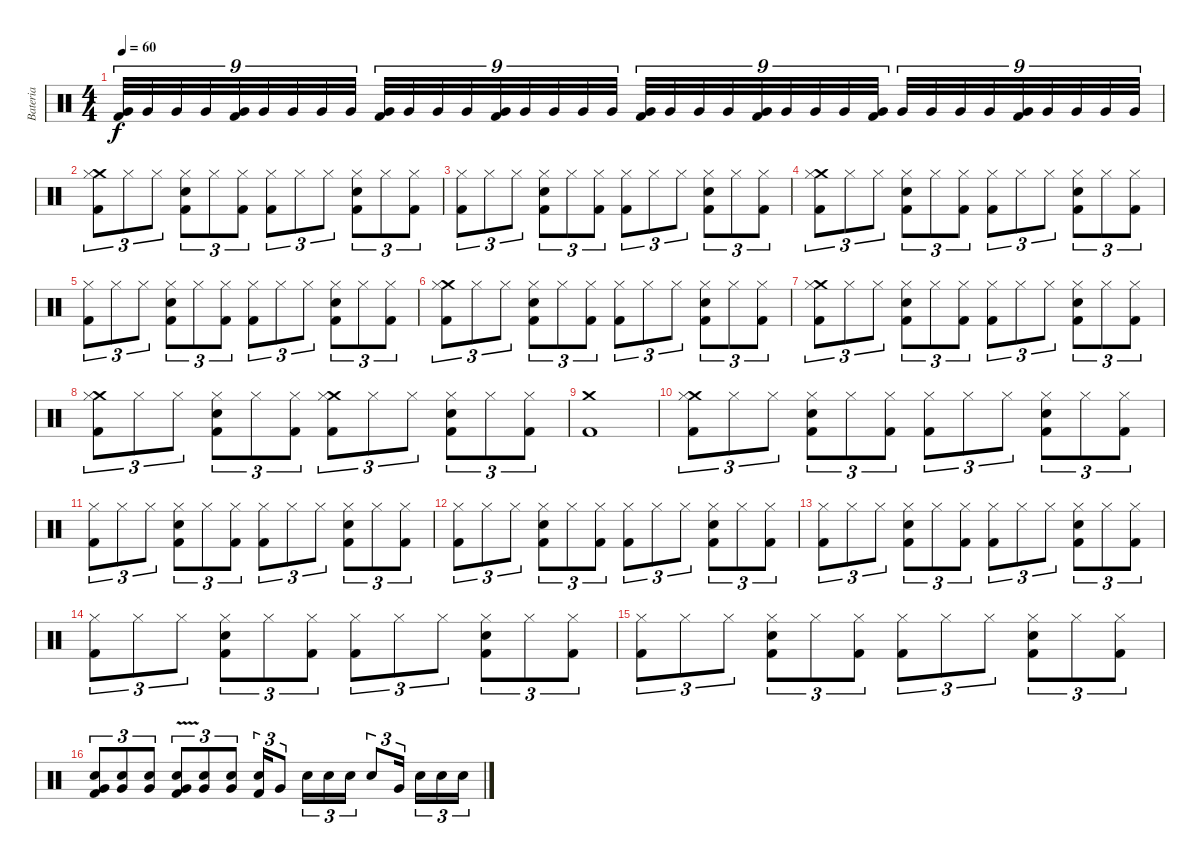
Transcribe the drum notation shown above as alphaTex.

\track ("Bateria" "Bateria") {instrument percussion}
\staff {score}
\articulation defaults
\ts (4 4)
\tempo 60
\clef neutral
\ks c
("Very Low Tom (hit)" "Kick (hit) 2").32{tu (9 8) dy f} "Very Low Tom (hit)".32{tu (9 8)} "Very Low Tom (hit)".32{tu (9 8)} "Very Low Tom (hit)".32{tu (9 8)} ("Very Low Tom (hit)" "Kick (hit) 2").32{tu (9 8)} "Very Low Tom (hit)".32{tu (9 8)} "Very Low Tom (hit)".32{tu (9 8)} "Very Low Tom (hit)".32{tu (9 8)} "Very Low Tom (hit)".32{tu (9 8)} ("Very Low Tom (hit)" "Kick (hit) 2").32{tu (9 8)} "Very Low Tom (hit)".32{tu (9 8)} "Very Low Tom (hit)".32{tu (9 8)} "Very Low Tom (hit)".32{tu (9 8)} ("Very Low Tom (hit)" "Kick (hit) 2").32{tu (9 8)} "Very Low Tom (hit)".32{tu (9 8)} "Very Low Tom (hit)".32{tu (9 8)} "Very Low Tom (hit)".32{tu (9 8)} "Very Low Tom (hit)".32{tu (9 8)} ("Very Low Tom (hit)" "Kick (hit) 2").32{tu (9 8)} "Very Low Tom (hit)".32{tu (9 8)} "Very Low Tom (hit)".32{tu (9 8)} "Very Low Tom (hit)".32{tu (9 8)} ("Very Low Tom (hit)" "Kick (hit) 2").32{tu (9 8)} "Very Low Tom (hit)".32{tu (9 8)} "Very Low Tom (hit)".32{tu (9 8)} "Very Low Tom (hit)".32{tu (9 8)} ("Very Low Tom (hit)" "Kick (hit) 2").32{tu (9 8)} "Very Low Tom (hit)".32{tu (9 8)} "Very Low Tom (hit)".32{tu (9 8)} "Very Low Tom (hit)".32{tu (9 8)} "Very Low Tom (hit)".32{tu (9 8)} ("Very Low Tom (hit)" "Kick (hit) 2").32{tu (9 8)} "Very Low Tom (hit)".32{tu (9 8)} "Very Low Tom (hit)".32{tu (9 8)} "Very Low Tom (hit)".32{tu (9 8)} "Very Low Tom (hit)".32{tu (9 8)} |
("Crash medium (hit)" "Hi-Hat (closed)" "Kick (hit) 2").8{tu (3 2)} "Hi-Hat (closed)".8{tu (3 2)} "Hi-Hat (closed)".8{tu (3 2)} ("Snare (hit) 2" "Hi-Hat (closed)" "Kick (hit) 2").8{tu (3 2)} "Hi-Hat (closed)".8{tu (3 2)} ("Hi-Hat (closed)" "Kick (hit) 2").8{tu (3 2)} ("Hi-Hat (closed)" "Kick (hit) 2").8{tu (3 2)} "Hi-Hat (closed)".8{tu (3 2)} "Hi-Hat (closed)".8{tu (3 2)} ("Snare (hit) 2" "Hi-Hat (closed)" "Kick (hit) 2").8{tu (3 2)} "Hi-Hat (closed)".8{tu (3 2)} ("Hi-Hat (closed)" "Kick (hit) 2").8{tu (3 2)} |
("Hi-Hat (closed)" "Kick (hit) 2").8{tu (3 2)} "Hi-Hat (closed)".8{tu (3 2)} "Hi-Hat (closed)".8{tu (3 2)} ("Snare (hit) 2" "Hi-Hat (closed)" "Kick (hit) 2").8{tu (3 2)} "Hi-Hat (closed)".8{tu (3 2)} ("Hi-Hat (closed)" "Kick (hit) 2").8{tu (3 2)} ("Hi-Hat (closed)" "Kick (hit) 2").8{tu (3 2)} "Hi-Hat (closed)".8{tu (3 2)} "Hi-Hat (closed)".8{tu (3 2)} ("Snare (hit) 2" "Hi-Hat (closed)" "Kick (hit) 2").8{tu (3 2)} "Hi-Hat (closed)".8{tu (3 2)} ("Hi-Hat (closed)" "Kick (hit) 2").8{tu (3 2)} |
("Crash medium (hit)" "Hi-Hat (closed)" "Kick (hit) 2").8{tu (3 2)} "Hi-Hat (closed)".8{tu (3 2)} "Hi-Hat (closed)".8{tu (3 2)} ("Snare (hit) 2" "Hi-Hat (closed)" "Kick (hit) 2").8{tu (3 2)} "Hi-Hat (closed)".8{tu (3 2)} ("Hi-Hat (closed)" "Kick (hit) 2").8{tu (3 2)} ("Hi-Hat (closed)" "Kick (hit) 2").8{tu (3 2)} "Hi-Hat (closed)".8{tu (3 2)} "Hi-Hat (closed)".8{tu (3 2)} ("Snare (hit) 2" "Hi-Hat (closed)" "Kick (hit) 2").8{tu (3 2)} "Hi-Hat (closed)".8{tu (3 2)} ("Hi-Hat (closed)" "Kick (hit) 2").8{tu (3 2)} |
("Hi-Hat (closed)" "Kick (hit) 2").8{tu (3 2)} "Hi-Hat (closed)".8{tu (3 2)} "Hi-Hat (closed)".8{tu (3 2)} ("Snare (hit) 2" "Hi-Hat (closed)" "Kick (hit) 2").8{tu (3 2)} "Hi-Hat (closed)".8{tu (3 2)} ("Hi-Hat (closed)" "Kick (hit) 2").8{tu (3 2)} ("Hi-Hat (closed)" "Kick (hit) 2").8{tu (3 2)} "Hi-Hat (closed)".8{tu (3 2)} "Hi-Hat (closed)".8{tu (3 2)} ("Snare (hit) 2" "Hi-Hat (closed)" "Kick (hit) 2").8{tu (3 2)} "Hi-Hat (closed)".8{tu (3 2)} ("Hi-Hat (closed)" "Kick (hit) 2").8{tu (3 2)} |
("Crash medium (hit)" "Hi-Hat (closed)" "Kick (hit) 2").8{tu (3 2)} "Hi-Hat (closed)".8{tu (3 2)} "Hi-Hat (closed)".8{tu (3 2)} ("Snare (hit) 2" "Hi-Hat (closed)" "Kick (hit) 2").8{tu (3 2)} "Hi-Hat (closed)".8{tu (3 2)} ("Hi-Hat (closed)" "Kick (hit) 2").8{tu (3 2)} ("Hi-Hat (closed)" "Kick (hit) 2").8{tu (3 2)} "Hi-Hat (closed)".8{tu (3 2)} "Hi-Hat (closed)".8{tu (3 2)} ("Snare (hit) 2" "Hi-Hat (closed)" "Kick (hit) 2").8{tu (3 2)} "Hi-Hat (closed)".8{tu (3 2)} ("Hi-Hat (closed)" "Kick (hit) 2").8{tu (3 2)} |
("Crash medium (hit)" "Hi-Hat (closed)" "Kick (hit) 2").8{tu (3 2)} "Hi-Hat (closed)".8{tu (3 2)} "Hi-Hat (closed)".8{tu (3 2)} ("Snare (hit) 2" "Hi-Hat (closed)" "Kick (hit) 2").8{tu (3 2)} "Hi-Hat (closed)".8{tu (3 2)} ("Hi-Hat (closed)" "Kick (hit) 2").8{tu (3 2)} ("Hi-Hat (closed)" "Kick (hit) 2").8{tu (3 2)} "Hi-Hat (closed)".8{tu (3 2)} "Hi-Hat (closed)".8{tu (3 2)} ("Snare (hit) 2" "Hi-Hat (closed)" "Kick (hit) 2").8{tu (3 2)} "Hi-Hat (closed)".8{tu (3 2)} ("Hi-Hat (closed)" "Kick (hit) 2").8{tu (3 2)} |
("Crash medium (hit)" "Hi-Hat (closed)" "Kick (hit) 2").8{tu (3 2)} "Hi-Hat (closed)".8{tu (3 2)} "Hi-Hat (closed)".8{tu (3 2)} ("Snare (hit) 2" "Hi-Hat (closed)" "Kick (hit) 2").8{tu (3 2)} "Hi-Hat (closed)".8{tu (3 2)} ("Hi-Hat (closed)" "Kick (hit) 2").8{tu (3 2)} ("Crash medium (hit)" "Hi-Hat (closed)" "Kick (hit) 2").8{tu (3 2)} "Hi-Hat (closed)".8{tu (3 2)} "Hi-Hat (closed)".8{tu (3 2)} ("Snare (hit) 2" "Hi-Hat (closed)" "Kick (hit) 2").8{tu (3 2)} "Hi-Hat (closed)".8{tu (3 2)} ("Hi-Hat (closed)" "Kick (hit) 2").8{tu (3 2)} |
("Crash medium (hit)" "Kick (hit) 2").1 |
("Crash medium (hit)" "Hi-Hat (closed)" "Kick (hit) 2").8{tu (3 2)} "Hi-Hat (closed)".8{tu (3 2)} "Hi-Hat (closed)".8{tu (3 2)} ("Snare (hit) 2" "Hi-Hat (closed)" "Kick (hit) 2").8{tu (3 2)} "Hi-Hat (closed)".8{tu (3 2)} ("Hi-Hat (closed)" "Kick (hit) 2").8{tu (3 2)} ("Hi-Hat (closed)" "Kick (hit) 2").8{tu (3 2)} "Hi-Hat (closed)".8{tu (3 2)} "Hi-Hat (closed)".8{tu (3 2)} ("Snare (hit) 2" "Hi-Hat (closed)" "Kick (hit) 2").8{tu (3 2)} "Hi-Hat (closed)".8{tu (3 2)} ("Hi-Hat (closed)" "Kick (hit) 2").8{tu (3 2)} |
("Hi-Hat (closed)" "Kick (hit) 2").8{tu (3 2)} "Hi-Hat (closed)".8{tu (3 2)} "Hi-Hat (closed)".8{tu (3 2)} ("Snare (hit) 2" "Hi-Hat (closed)" "Kick (hit) 2").8{tu (3 2)} "Hi-Hat (closed)".8{tu (3 2)} ("Hi-Hat (closed)" "Kick (hit) 2").8{tu (3 2)} ("Hi-Hat (closed)" "Kick (hit) 2").8{tu (3 2)} "Hi-Hat (closed)".8{tu (3 2)} "Hi-Hat (closed)".8{tu (3 2)} ("Snare (hit) 2" "Hi-Hat (closed)" "Kick (hit) 2").8{tu (3 2)} "Hi-Hat (closed)".8{tu (3 2)} ("Hi-Hat (closed)" "Kick (hit) 2").8{tu (3 2)} |
("Hi-Hat (closed)" "Kick (hit) 2").8{tu (3 2)} "Hi-Hat (closed)".8{tu (3 2)} "Hi-Hat (closed)".8{tu (3 2)} ("Snare (hit) 2" "Hi-Hat (closed)" "Kick (hit) 2").8{tu (3 2)} "Hi-Hat (closed)".8{tu (3 2)} ("Hi-Hat (closed)" "Kick (hit) 2").8{tu (3 2)} ("Hi-Hat (closed)" "Kick (hit) 2").8{tu (3 2)} "Hi-Hat (closed)".8{tu (3 2)} "Hi-Hat (closed)".8{tu (3 2)} ("Snare (hit) 2" "Hi-Hat (closed)" "Kick (hit) 2").8{tu (3 2)} "Hi-Hat (closed)".8{tu (3 2)} ("Hi-Hat (closed)" "Kick (hit) 2").8{tu (3 2)} |
("Hi-Hat (closed)" "Kick (hit) 2").8{tu (3 2)} "Hi-Hat (closed)".8{tu (3 2)} "Hi-Hat (closed)".8{tu (3 2)} ("Snare (hit) 2" "Hi-Hat (closed)" "Kick (hit) 2").8{tu (3 2)} "Hi-Hat (closed)".8{tu (3 2)} ("Hi-Hat (closed)" "Kick (hit) 2").8{tu (3 2)} ("Hi-Hat (closed)" "Kick (hit) 2").8{tu (3 2)} "Hi-Hat (closed)".8{tu (3 2)} "Hi-Hat (closed)".8{tu (3 2)} ("Snare (hit) 2" "Hi-Hat (closed)" "Kick (hit) 2").8{tu (3 2)} "Hi-Hat (closed)".8{tu (3 2)} ("Hi-Hat (closed)" "Kick (hit) 2").8{tu (3 2)} |
("Hi-Hat (closed)" "Kick (hit) 2").8{tu (3 2)} "Hi-Hat (closed)".8{tu (3 2)} "Hi-Hat (closed)".8{tu (3 2)} ("Snare (hit) 2" "Hi-Hat (closed)" "Kick (hit) 2").8{tu (3 2)} "Hi-Hat (closed)".8{tu (3 2)} ("Hi-Hat (closed)" "Kick (hit) 2").8{tu (3 2)} ("Hi-Hat (closed)" "Kick (hit) 2").8{tu (3 2)} "Hi-Hat (closed)".8{tu (3 2)} "Hi-Hat (closed)".8{tu (3 2)} ("Snare (hit) 2" "Hi-Hat (closed)" "Kick (hit) 2").8{tu (3 2)} "Hi-Hat (closed)".8{tu (3 2)} ("Hi-Hat (closed)" "Kick (hit) 2").8{tu (3 2)} |
("Hi-Hat (closed)" "Kick (hit) 2").8{tu (3 2)} "Hi-Hat (closed)".8{tu (3 2)} "Hi-Hat (closed)".8{tu (3 2)} ("Snare (hit) 2" "Hi-Hat (closed)" "Kick (hit) 2").8{tu (3 2)} "Hi-Hat (closed)".8{tu (3 2)} ("Hi-Hat (closed)" "Kick (hit) 2").8{tu (3 2)} ("Hi-Hat (closed)" "Kick (hit) 2").8{tu (3 2)} "Hi-Hat (closed)".8{tu (3 2)} "Hi-Hat (closed)".8{tu (3 2)} ("Snare (hit) 2" "Hi-Hat (closed)" "Kick (hit) 2").8{tu (3 2)} "Hi-Hat (closed)".8{tu (3 2)} ("Hi-Hat (closed)" "Kick (hit) 2").8{tu (3 2)} |
("Snare (hit) 2" "Very Low Tom (hit)" "Kick (hit) 2").8{tu (3 2)} ("Snare (hit) 2" "Very Low Tom (hit)").8{tu (3 2)} ("Snare (hit) 2" "Very Low Tom (hit)").8{tu (3 2)} ("Snare (hit) 2"{v} "Very Low Tom (hit)"{v} "Kick (hit) 2"{v}).8{tu (3 2)} ("Snare (hit) 2" "Very Low Tom (hit)").8{tu (3 2)} ("Snare (hit) 2" "Very Low Tom (hit)").8{tu (3 2)} ("Snare (hit) 2" "Kick (hit) 2").16{tu (3 2)} "Very Low Tom (hit)".8{tu (3 2)} "Snare (hit) 2".16{tu (3 2)} "Snare (hit) 2".16{tu (3 2)} "Snare (hit) 2".16{tu (3 2)} "Snare (hit) 2".8{tu (3 2)} "Very Low Tom (hit)".16{tu (3 2)} "Snare (hit) 2".16{tu (3 2)} "Snare (hit) 2".16{tu (3 2)} "Snare (hit) 2".16{tu (3 2)}
